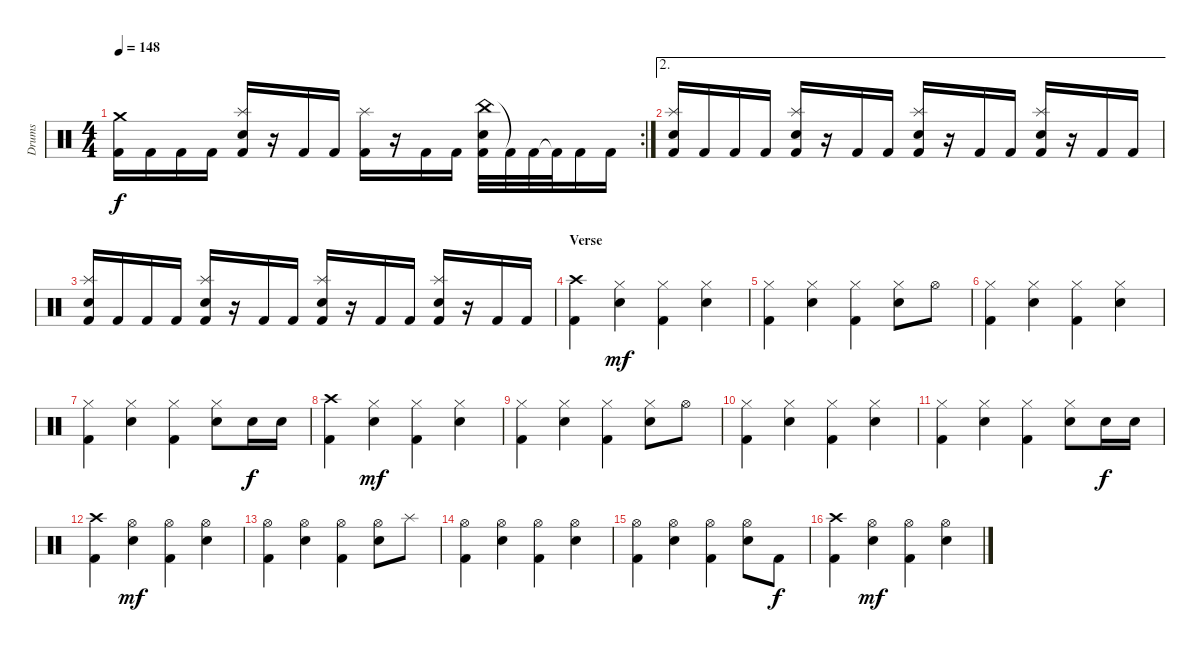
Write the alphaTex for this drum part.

\track ("Drums" "Drums") {instrument percussion}
\staff {score}
\articulation defaults
\rc 2
\ts (4 4)
\tempo 148
\clef neutral
\ks c
("Crash medium (hit)" "Kick (hit) 2").16{dy f} "Kick (hit) 2".16 "Kick (hit) 2".16 "Kick (hit) 2".16 ("Splash (hit)" "Snare (hit) 2" "Kick (hit) 2").16 r.16 "Kick (hit) 2".16 "Kick (hit) 2".16 ("Splash (hit)" "Kick (hit) 2").16 r.16 "Kick (hit) 2".16 "Kick (hit) 2".16 ("China (hit)" "Snare (hit) 2" "Kick (hit) 2").32 "Kick (hit) 2"{t}.32 "Kick (hit) 2".32 "Kick (hit) 2"{t}.32 "Kick (hit) 2".16 "Kick (hit) 2".16 |
\ae 2
("Splash (hit)" "Snare (hit) 2" "Kick (hit) 2").16 "Kick (hit) 2".16 "Kick (hit) 2".16 "Kick (hit) 2".16 ("Splash (hit)" "Snare (hit) 2" "Kick (hit) 2").16 r.16 "Kick (hit) 2".16 "Kick (hit) 2".16 ("Splash (hit)" "Snare (hit) 2" "Kick (hit) 2").16 r.16 "Kick (hit) 2".16 "Kick (hit) 2".16 ("Splash (hit)" "Snare (hit) 2" "Kick (hit) 2").16 r.16 "Kick (hit) 2".16 "Kick (hit) 2".16 |
("Splash (hit)" "Snare (hit) 2" "Kick (hit) 2").16 "Kick (hit) 2".16 "Kick (hit) 2".16 "Kick (hit) 2".16 ("Splash (hit)" "Snare (hit) 2" "Kick (hit) 2").16 r.16 "Kick (hit) 2".16 "Kick (hit) 2".16 ("Splash (hit)" "Snare (hit) 2" "Kick (hit) 2").16 r.16 "Kick (hit) 2".16 "Kick (hit) 2".16 ("Splash (hit)" "Snare (hit) 2" "Kick (hit) 2").16 r.16 "Kick (hit) 2".16 "Kick (hit) 2".16 |
\section ("" "Verse")
("Crash high (hit)" "Kick (hit) 2").4 ("Hi-Hat (closed)" "Snare (hit) 2").4{dy mf} ("Hi-Hat (closed)" "Kick (hit) 2").4 ("Hi-Hat (closed)" "Snare (hit) 2").4 |
("Hi-Hat (closed)" "Kick (hit) 2").4 ("Hi-Hat (closed)" "Snare (hit) 2").4 ("Hi-Hat (closed)" "Kick (hit) 2").4 ("Hi-Hat (closed)" "Snare (hit) 2").8 "Hi-Hat (open)".8 |
("Hi-Hat (closed)" "Kick (hit) 2").4 ("Hi-Hat (closed)" "Snare (hit) 2").4 ("Hi-Hat (closed)" "Kick (hit) 2").4 ("Hi-Hat (closed)" "Snare (hit) 2").4 |
("Hi-Hat (closed)" "Kick (hit) 2").4 ("Hi-Hat (closed)" "Snare (hit) 2").4 ("Hi-Hat (closed)" "Kick (hit) 2").4 ("Hi-Hat (closed)" "Snare (hit) 2").8 "Snare (hit) 2".16{dy f} "Snare (hit) 2".16 |
("Crash high (hit)" "Kick (hit) 2").4 ("Hi-Hat (closed)" "Snare (hit) 2").4{dy mf} ("Hi-Hat (closed)" "Kick (hit) 2").4 ("Hi-Hat (closed)" "Snare (hit) 2").4 |
("Hi-Hat (closed)" "Kick (hit) 2").4 ("Hi-Hat (closed)" "Snare (hit) 2").4 ("Hi-Hat (closed)" "Kick (hit) 2").4 ("Hi-Hat (closed)" "Snare (hit) 2").8 "Hi-Hat (open)".8 |
("Hi-Hat (closed)" "Kick (hit) 2").4 ("Hi-Hat (closed)" "Snare (hit) 2").4 ("Hi-Hat (closed)" "Kick (hit) 2").4 ("Hi-Hat (closed)" "Snare (hit) 2").4 |
("Hi-Hat (closed)" "Kick (hit) 2").4 ("Hi-Hat (closed)" "Snare (hit) 2").4 ("Hi-Hat (closed)" "Kick (hit) 2").4 ("Hi-Hat (closed)" "Snare (hit) 2").8 "Snare (hit) 2".16{dy f} "Snare (hit) 2".16 |
("Crash high (hit)" "Kick (hit) 2").4 ("Hi-Hat (open)" "Snare (hit) 2").4{dy mf} ("Hi-Hat (open)" "Kick (hit) 2").4 ("Hi-Hat (open)" "Snare (hit) 2").4 |
("Hi-Hat (open)" "Kick (hit) 2").4 ("Hi-Hat (open)" "Snare (hit) 2").4 ("Hi-Hat (open)" "Kick (hit) 2").4 ("Hi-Hat (open)" "Snare (hit) 2").8 "Splash (hit)".8 |
("Hi-Hat (open)" "Kick (hit) 2").4 ("Hi-Hat (open)" "Snare (hit) 2").4 ("Hi-Hat (open)" "Kick (hit) 2").4 ("Hi-Hat (open)" "Snare (hit) 2").4 |
("Hi-Hat (open)" "Kick (hit) 2").4 ("Hi-Hat (open)" "Snare (hit) 2").4 ("Hi-Hat (open)" "Kick (hit) 2").4 ("Hi-Hat (open)" "Snare (hit) 2").8 "Kick (hit) 2".8{dy f} |
("Crash high (hit)" "Kick (hit) 2").4 ("Hi-Hat (open)" "Snare (hit) 2").4{dy mf} ("Hi-Hat (open)" "Kick (hit) 2").4 ("Hi-Hat (open)" "Snare (hit) 2").4
